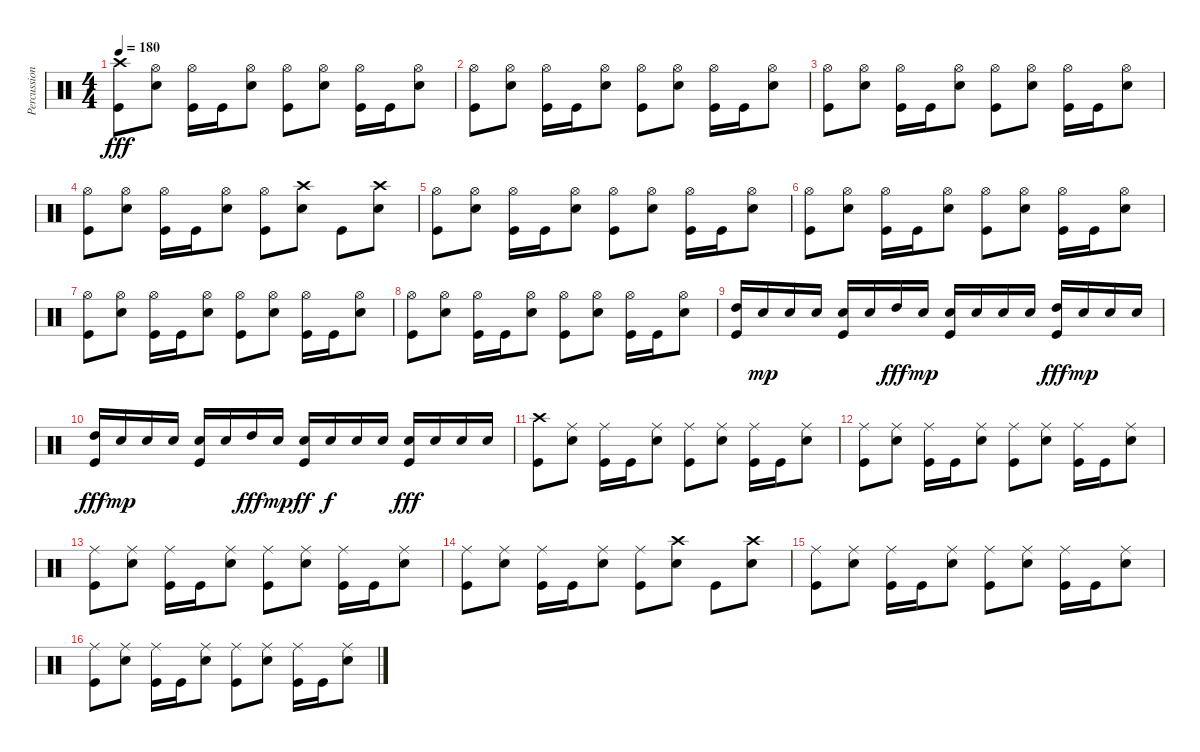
\track ("Percussion" "Percussion") {instrument percussion}
\staff {score}
\articulation defaults
\ts (4 4)
\tempo 180
\clef neutral
\ks c
("Kick (hit)" "Crash high (hit)").8{dy fff} ("Snare (hit) 2" "Hi-Hat (open)").8 ("Kick (hit)" "Hi-Hat (open)").16 "Kick (hit)".16 ("Snare (hit) 2" "Hi-Hat (open)").8 ("Kick (hit)" "Hi-Hat (open)").8 ("Snare (hit) 2" "Hi-Hat (open)").8 ("Kick (hit)" "Hi-Hat (open)").16 "Kick (hit)".16 ("Snare (hit) 2" "Hi-Hat (open)").8 |
("Kick (hit)" "Hi-Hat (open)").8 ("Snare (hit) 2" "Hi-Hat (open)").8 ("Kick (hit)" "Hi-Hat (open)").16 "Kick (hit)".16 ("Snare (hit) 2" "Hi-Hat (open)").8 ("Kick (hit)" "Hi-Hat (open)").8 ("Snare (hit) 2" "Hi-Hat (open)").8 ("Kick (hit)" "Hi-Hat (open)").16 "Kick (hit)".16 ("Snare (hit) 2" "Hi-Hat (open)").8 |
("Kick (hit)" "Hi-Hat (open)").8 ("Snare (hit) 2" "Hi-Hat (open)").8 ("Kick (hit)" "Hi-Hat (open)").16 "Kick (hit)".16 ("Snare (hit) 2" "Hi-Hat (open)").8 ("Kick (hit)" "Hi-Hat (open)").8 ("Snare (hit) 2" "Hi-Hat (open)").8 ("Kick (hit)" "Hi-Hat (open)").16 "Kick (hit)".16 ("Snare (hit) 2" "Hi-Hat (open)").8 |
("Kick (hit)" "Hi-Hat (open)").8 ("Snare (hit) 2" "Hi-Hat (open)").8 ("Kick (hit)" "Hi-Hat (open)").16 "Kick (hit)".16 ("Snare (hit) 2" "Hi-Hat (open)").8 ("Kick (hit)" "Hi-Hat (open)").8 ("Snare (hit) 2" "Crash high (hit)").8 "Kick (hit)".8 ("Snare (hit) 2" "Crash high (hit)").8 |
("Kick (hit)" "Hi-Hat (open)").8 ("Snare (hit) 2" "Hi-Hat (open)").8 ("Kick (hit)" "Hi-Hat (open)").16 "Kick (hit)".16 ("Snare (hit) 2" "Hi-Hat (open)").8 ("Kick (hit)" "Hi-Hat (open)").8 ("Snare (hit) 2" "Hi-Hat (open)").8 ("Kick (hit)" "Hi-Hat (open)").16 "Kick (hit)".16 ("Snare (hit) 2" "Hi-Hat (open)").8 |
("Kick (hit)" "Hi-Hat (open)").8 ("Snare (hit) 2" "Hi-Hat (open)").8 ("Kick (hit)" "Hi-Hat (open)").16 "Kick (hit)".16 ("Snare (hit) 2" "Hi-Hat (open)").8 ("Kick (hit)" "Hi-Hat (open)").8 ("Snare (hit) 2" "Hi-Hat (open)").8 ("Kick (hit)" "Hi-Hat (open)").16 "Kick (hit)".16 ("Snare (hit) 2" "Hi-Hat (open)").8 |
("Kick (hit)" "Hi-Hat (open)").8 ("Snare (hit) 2" "Hi-Hat (open)").8 ("Kick (hit)" "Hi-Hat (open)").16 "Kick (hit)".16 ("Snare (hit) 2" "Hi-Hat (open)").8 ("Kick (hit)" "Hi-Hat (open)").8 ("Snare (hit) 2" "Hi-Hat (open)").8 ("Kick (hit)" "Hi-Hat (open)").16 "Kick (hit)".16 ("Snare (hit) 2" "Hi-Hat (open)").8 |
("Kick (hit)" "Hi-Hat (open)").8 ("Snare (hit) 2" "Hi-Hat (open)").8 ("Kick (hit)" "Hi-Hat (open)").16 "Kick (hit)".16 ("Snare (hit) 2" "Hi-Hat (open)").8 ("Kick (hit)" "Hi-Hat (open)").8 ("Snare (hit) 2" "Hi-Hat (open)").8 ("Kick (hit)" "Hi-Hat (open)").16 "Kick (hit)".16 ("Snare (hit) 2" "Hi-Hat (open)").8 |
("Kick (hit)" "High Tom (hit)").16 "Snare (hit) 2".16{dy mp} "Snare (hit) 2".16 "Snare (hit) 2".16 ("Kick (hit)" "Snare (hit) 2").16 "Snare (hit) 2".16 "High Tom (hit)".16{dy fff} "Snare (hit) 2".16{dy mp} ("Kick (hit)" "Snare (hit) 2").16 "Snare (hit) 2".16 "Snare (hit) 2".16 "Snare (hit) 2".16 ("Kick (hit)" "High Tom (hit)").16{dy fff} "Snare (hit) 2".16{dy mp} "Snare (hit) 2".16 "Snare (hit) 2".16 |
("Kick (hit)" "High Tom (hit)").16{dy fff} "Snare (hit) 2".16{dy mp} "Snare (hit) 2".16 "Snare (hit) 2".16 ("Kick (hit)" "Snare (hit) 2").16 "Snare (hit) 2".16 "High Tom (hit)".16{dy fff} "Snare (hit) 2".16{dy mp} ("Kick (hit)" "Snare (hit) 2").16{dy ff} "Snare (hit) 2".16{dy f} "Snare (hit) 2".16 "Snare (hit) 2".16 ("Kick (hit)" "Snare (hit) 2").16{dy fff} "Snare (hit) 2".16 "Snare (hit) 2".16 "Snare (hit) 2".16 |
("Kick (hit)" "Crash high (hit)").8 ("Snare (hit) 2" "Ride (middle)").8 ("Kick (hit)" "Ride (middle)").16 "Kick (hit)".16 ("Snare (hit) 2" "Ride (middle)").8 ("Kick (hit)" "Ride (middle)").8 ("Snare (hit) 2" "Ride (middle)").8 ("Kick (hit)" "Ride (middle)").16 "Kick (hit)".16 ("Snare (hit) 2" "Ride (middle)").8 |
("Kick (hit)" "Ride (middle)").8 ("Snare (hit) 2" "Ride (middle)").8 ("Kick (hit)" "Ride (middle)").16 "Kick (hit)".16 ("Snare (hit) 2" "Ride (middle)").8 ("Kick (hit)" "Ride (middle)").8 ("Snare (hit) 2" "Ride (middle)").8 ("Kick (hit)" "Ride (middle)").16 "Kick (hit)".16 ("Snare (hit) 2" "Ride (middle)").8 |
("Kick (hit)" "Ride (middle)").8 ("Snare (hit) 2" "Ride (middle)").8 ("Kick (hit)" "Ride (middle)").16 "Kick (hit)".16 ("Snare (hit) 2" "Ride (middle)").8 ("Kick (hit)" "Ride (middle)").8 ("Snare (hit) 2" "Ride (middle)").8 ("Kick (hit)" "Ride (middle)").16 "Kick (hit)".16 ("Snare (hit) 2" "Ride (middle)").8 |
("Kick (hit)" "Ride (middle)").8 ("Snare (hit) 2" "Ride (middle)").8 ("Kick (hit)" "Ride (middle)").16 "Kick (hit)".16 ("Snare (hit) 2" "Ride (middle)").8 ("Kick (hit)" "Ride (middle)").8 ("Snare (hit) 2" "Crash high (hit)").8 "Kick (hit)".8 ("Snare (hit) 2" "Crash high (hit)").8 |
("Kick (hit)" "Ride (middle)").8 ("Snare (hit) 2" "Ride (middle)").8 ("Kick (hit)" "Ride (middle)").16 "Kick (hit)".16 ("Snare (hit) 2" "Ride (middle)").8 ("Kick (hit)" "Ride (middle)").8 ("Snare (hit) 2" "Ride (middle)").8 ("Kick (hit)" "Ride (middle)").16 "Kick (hit)".16 ("Snare (hit) 2" "Ride (middle)").8 |
("Kick (hit)" "Ride (middle)").8 ("Snare (hit) 2" "Ride (middle)").8 ("Kick (hit)" "Ride (middle)").16 "Kick (hit)".16 ("Snare (hit) 2" "Ride (middle)").8 ("Kick (hit)" "Ride (middle)").8 ("Snare (hit) 2" "Ride (middle)").8 ("Kick (hit)" "Ride (middle)").16 "Kick (hit)".16 ("Snare (hit) 2" "Ride (middle)").8
